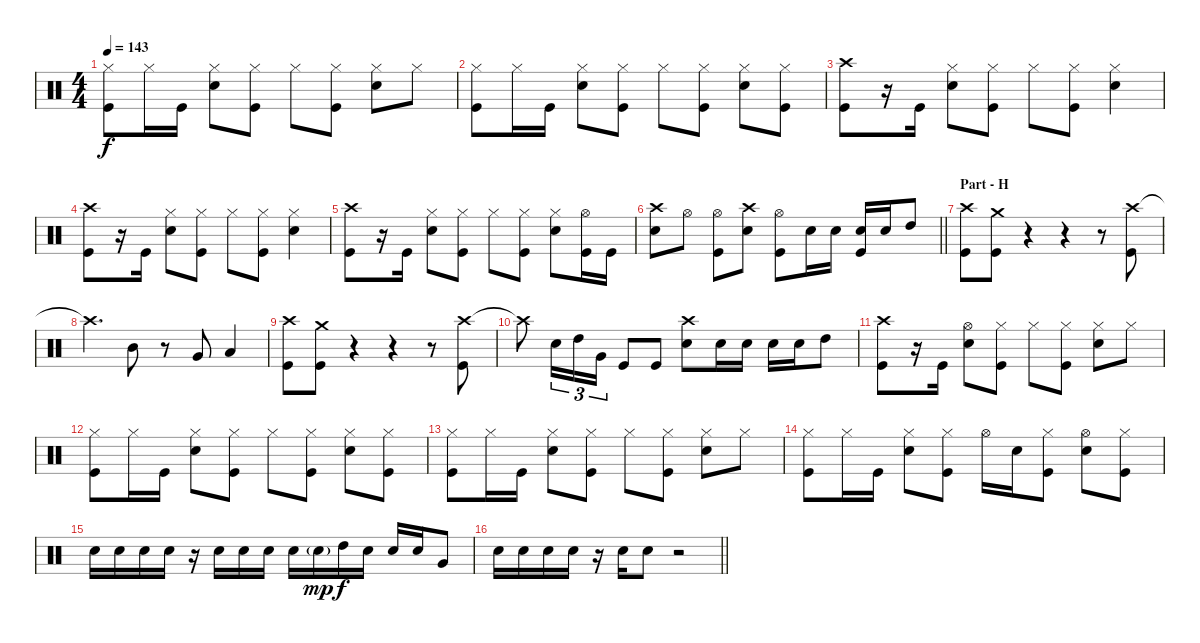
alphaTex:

\track "" {instrument percussion}
\staff {score}
\articulation defaults
\ts (4 4)
\tempo 143
\clef neutral
\ks c
("Hi-Hat (closed)" "Kick (hit)").8{dy f} "Hi-Hat (closed)".16 "Kick (hit)".16 ("Hi-Hat (closed)" "Snare (hit) 2").8 ("Hi-Hat (closed)" "Kick (hit)").8 "Hi-Hat (closed)".8 ("Hi-Hat (closed)" "Kick (hit)").8 ("Hi-Hat (closed)" "Snare (hit) 2").8 "Hi-Hat (closed)".8 |
("Hi-Hat (closed)" "Kick (hit)").8 "Hi-Hat (closed)".16 "Kick (hit)".16 ("Hi-Hat (closed)" "Snare (hit) 2").8 ("Hi-Hat (closed)" "Kick (hit)").8 "Hi-Hat (closed)".8 ("Hi-Hat (closed)" "Kick (hit)").8 ("Hi-Hat (closed)" "Snare (hit) 2").8 ("Hi-Hat (closed)" "Kick (hit)").8 |
("Crash high (hit)" "Kick (hit)").8 r.16 "Kick (hit)".16 ("Hi-Hat (closed)" "Snare (hit) 2").8 ("Hi-Hat (closed)" "Kick (hit)").8 "Hi-Hat (closed)".8 ("Hi-Hat (closed)" "Kick (hit)").8 ("Hi-Hat (closed)" "Snare (hit) 2").4 |
("Crash high (hit)" "Kick (hit)").8 r.16 "Kick (hit)".16 ("Hi-Hat (closed)" "Snare (hit) 2").8 ("Hi-Hat (closed)" "Kick (hit)").8 "Hi-Hat (closed)".8 ("Hi-Hat (closed)" "Kick (hit)").8 ("Hi-Hat (closed)" "Snare (hit) 2").4 |
("Crash high (hit)" "Kick (hit)").8 r.16 "Kick (hit)".16 ("Hi-Hat (closed)" "Snare (hit) 2").8 ("Hi-Hat (closed)" "Kick (hit)").8 "Hi-Hat (closed)".8 ("Hi-Hat (closed)" "Kick (hit)").8 ("Hi-Hat (closed)" "Snare (hit) 2").8 ("Hi-Hat (open)" "Kick (hit)").16 "Kick (hit)".16 |
\barLineRight lightlight
("Crash high (hit)" "Snare (hit) 2").8 "Hi-Hat (open)".8 ("Hi-Hat (open)" "Kick (hit)").8 ("Crash high (hit)" "Snare (hit) 2").8 ("Hi-Hat (open)" "Kick (hit)").8 "Snare (hit) 2".16 "Snare (hit) 2".16 ("Snare (hit) 2" "Kick (hit)").16 "Snare (hit) 2".16 "High Tom (hit)".8 |
\section ("" "Part - H")
("Crash high (hit)" "Kick (hit)").8 ("Crash medium (hit)" "Kick (hit)").8 r.4 r.4 r.8 ("Crash high (hit)" "Kick (hit)").8 |
"Crash high (hit)"{t}.4{d} "Mid Tom (hit)".8 r.8 "Very Low Tom (hit)".8 "Low Floor Tom (hit)".4 |
("Crash high (hit)" "Kick (hit)").8 ("Crash medium (hit)" "Kick (hit)").8 r.4 r.4 r.8 ("Crash high (hit)" "Kick (hit)").8 |
"Crash high (hit)"{t}.8 "Snare (hit) 2".16{tu (3 2)} "High Tom (hit)".16{tu (3 2)} "Very Low Tom (hit)".16{tu (3 2)} "Kick (hit)".8 "Kick (hit)".8 ("Crash high (hit)" "Snare (hit) 2").8 "Snare (hit) 2".16 "Snare (hit) 2".16 "Snare (hit) 2".16 "Snare (hit) 2".16 "High Tom (hit)".8 |
("Crash high (hit)" "Kick (hit)").8 r.16 "Kick (hit)".16 ("Hi-Hat (open)" "Snare (hit) 2").8 ("Hi-Hat (closed)" "Kick (hit)").8 "Hi-Hat (closed)".8 ("Hi-Hat (closed)" "Kick (hit)").8 ("Hi-Hat (closed)" "Snare (hit) 2").8 "Hi-Hat (closed)".8 |
("Hi-Hat (closed)" "Kick (hit)").8 "Hi-Hat (closed)".16 "Kick (hit)".16 ("Hi-Hat (closed)" "Snare (hit) 2").8 ("Hi-Hat (closed)" "Kick (hit)").8 "Hi-Hat (closed)".8 ("Hi-Hat (closed)" "Kick (hit)").8 ("Hi-Hat (closed)" "Snare (hit) 2").8 ("Hi-Hat (closed)" "Kick (hit)").8 |
("Hi-Hat (closed)" "Kick (hit)").8 "Hi-Hat (closed)".16 "Kick (hit)".16 ("Hi-Hat (closed)" "Snare (hit) 2").8 ("Hi-Hat (closed)" "Kick (hit)").8 "Hi-Hat (closed)".8 ("Hi-Hat (closed)" "Kick (hit)").8 ("Hi-Hat (closed)" "Snare (hit) 2").8 "Hi-Hat (closed)".8 |
("Hi-Hat (closed)" "Kick (hit)").8 "Hi-Hat (closed)".16 "Kick (hit)".16 ("Hi-Hat (closed)" "Snare (hit) 2").8 ("Hi-Hat (closed)" "Kick (hit)").8 "Hi-Hat (open)".16 "Snare (hit) 2".16 ("Hi-Hat (closed)" "Kick (hit)").8 ("Hi-Hat (open)" "Snare (hit) 2").8 ("Hi-Hat (closed)" "Kick (hit)").8 |
"Snare (hit) 2".16 "Snare (hit) 2".16 "Snare (hit) 2".16 "Snare (hit) 2".16 r.16 "Snare (hit) 2".16 "Snare (hit) 2".16 "Snare (hit) 2".16 "Snare (hit) 2".16 "Snare (hit) 2"{g}.16{dy mp} "High Tom (hit)".16{dy f} "Snare (hit) 2".16 "Snare (hit) 2".16 "Snare (hit) 2".16 "Very Low Tom (hit)".8 |
\barLineRight lightlight "Snare (hit) 2".16 "Snare (hit) 2".16 "Snare (hit) 2".16 "Snare (hit) 2".16
r.16 "Snare (hit) 2".16 "Snare (hit) 2".8 r.2
